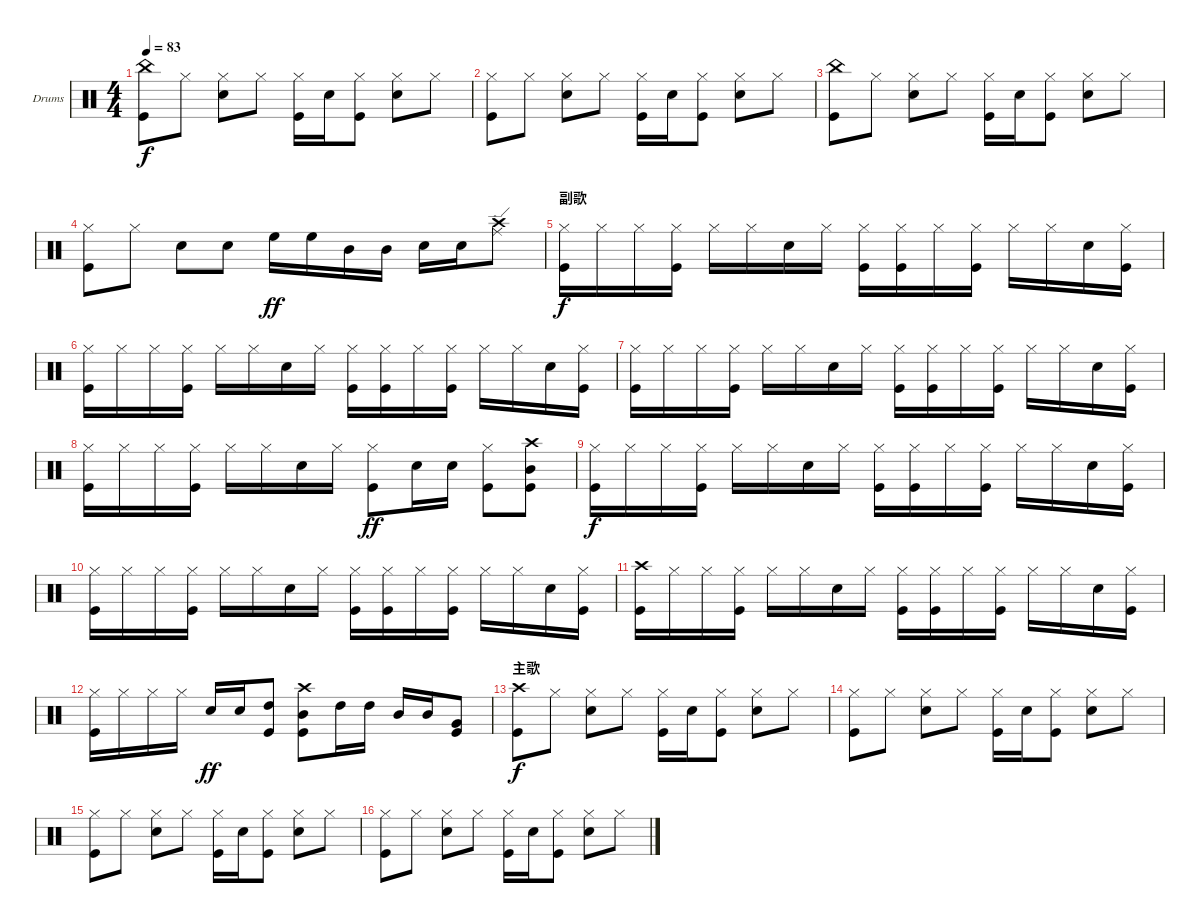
\bracketExtendMode groupsimilarinstruments
\firstSystemTrackNameOrientation horizontal
\otherSystemsTrackNameOrientation horizontal
\track ("Drumkit" "Drums") {solo instrument percussion}
\staff {score}
\articulation defaults
\ts (4 4)
\tempo 83
\clef neutral
\scale
0.333333
\ks c
("Kick (hit)" "China (hit)").8{dy f} "Hi-Hat (closed)".8 ("Snare (hit) 2" "Hi-Hat (closed)").8 "Hi-Hat (closed)".8 ("Kick (hit)" "Hi-Hat (closed)").16 "Snare (hit) 2".16 ("Kick (hit)" "Hi-Hat (closed)").8 ("Snare (hit) 2" "Hi-Hat (closed)").8 "Hi-Hat (closed)".8 |
\scale
0.333333 ("Kick (hit)" "Hi-Hat (closed)").8 "Hi-Hat (closed)".8 ("Snare (hit) 2" "Hi-Hat (closed)").8 "Hi-Hat (closed)".8 ("Kick (hit)" "Hi-Hat (closed)").16 "Snare (hit) 2".16 ("Kick (hit)" "Hi-Hat (closed)").8 ("Snare (hit) 2" "Hi-Hat (closed)").8 "Hi-Hat (closed)".8 |
\scale
0.333333 ("Kick (hit)" "China (hit)").8 "Hi-Hat (closed)".8 ("Snare (hit) 2" "Hi-Hat (closed)").8 "Hi-Hat (closed)".8 ("Kick (hit)" "Hi-Hat (closed)").16 "Snare (hit) 2".16 ("Kick (hit)" "Hi-Hat (closed)").8 ("Snare (hit) 2" "Hi-Hat (closed)").8 "Hi-Hat (closed)".8 |
\scale
0.333333 ("Kick (hit)" "Hi-Hat (closed)").8 "Hi-Hat (closed)".8 "Snare (hit) 2".8 "Snare (hit) 2".8 "High Floor Tom (hit)".16{dy ff} "High Floor Tom (hit)".16 "Mid Tom (hit)".16 "Mid Tom (hit)".16 "Snare (hit) 2".16 "Snare (hit) 2".16 ("Crash high (hit)" "Ride (edge)").8 |
\section ("" "副歌")
\scale
0.333333 ("Kick (hit)" "Hi-Hat (closed)").16{dy f} "Hi-Hat (closed)".16 "Hi-Hat (closed)".16 ("Hi-Hat (closed)" "Kick (hit)").16 "Hi-Hat (closed)".16 "Hi-Hat (closed)".16 "Snare (hit) 2".16 "Hi-Hat (closed)".16 ("Kick (hit)" "Hi-Hat (closed)").16 ("Hi-Hat (closed)" "Kick (hit)").16 "Hi-Hat (closed)".16 ("Hi-Hat (closed)" "Kick (hit)").16 "Hi-Hat (closed)".16 "Hi-Hat (closed)".16 "Snare (hit) 2".16 ("Hi-Hat (closed)" "Kick (hit)").16 |
\scale
0.333333 ("Kick (hit)" "Hi-Hat (closed)").16 "Hi-Hat (closed)".16 "Hi-Hat (closed)".16 ("Hi-Hat (closed)" "Kick (hit)").16 "Hi-Hat (closed)".16 "Hi-Hat (closed)".16 "Snare (hit) 2".16 "Hi-Hat (closed)".16 ("Kick (hit)" "Hi-Hat (closed)").16 ("Hi-Hat (closed)" "Kick (hit)").16 "Hi-Hat (closed)".16 ("Hi-Hat (closed)" "Kick (hit)").16 "Hi-Hat (closed)".16 "Hi-Hat (closed)".16 "Snare (hit) 2".16 ("Hi-Hat (closed)" "Kick (hit)").16 |
\scale
0.333333 ("Kick (hit)" "Hi-Hat (closed)").16 "Hi-Hat (closed)".16 "Hi-Hat (closed)".16 ("Hi-Hat (closed)" "Kick (hit)").16 "Hi-Hat (closed)".16 "Hi-Hat (closed)".16 "Snare (hit) 2".16 "Hi-Hat (closed)".16 ("Kick (hit)" "Hi-Hat (closed)").16 ("Hi-Hat (closed)" "Kick (hit)").16 "Hi-Hat (closed)".16 ("Hi-Hat (closed)" "Kick (hit)").16 "Hi-Hat (closed)".16 "Hi-Hat (closed)".16 "Snare (hit) 2".16 ("Hi-Hat (closed)" "Kick (hit)").16 |
\scale
0.333333 ("Kick (hit)" "Hi-Hat (closed)").16 "Hi-Hat (closed)".16 "Hi-Hat (closed)".16 ("Hi-Hat (closed)" "Kick (hit)").16 "Hi-Hat (closed)".16 "Hi-Hat (closed)".16 "Snare (hit) 2".16 "Hi-Hat (closed)".16 ("Kick (hit)" "Hi-Hat (closed)").8{dy ff} "Snare (hit) 2".16 "Snare (hit) 2".16 ("Kick (hit)" "Hi-Hat (closed)").8 ("Mid Tom (hit)" "Kick (hit)" "Crash high (hit)").8 |
\scale
0.333333 ("Kick (hit)" "Hi-Hat (closed)").16{dy f} "Hi-Hat (closed)".16 "Hi-Hat (closed)".16 ("Hi-Hat (closed)" "Kick (hit)").16 "Hi-Hat (closed)".16 "Hi-Hat (closed)".16 "Snare (hit) 2".16 "Hi-Hat (closed)".16 ("Kick (hit)" "Hi-Hat (closed)").16 ("Hi-Hat (closed)" "Kick (hit)").16 "Hi-Hat (closed)".16 ("Hi-Hat (closed)" "Kick (hit)").16 "Hi-Hat (closed)".16 "Hi-Hat (closed)".16 "Snare (hit) 2".16 ("Hi-Hat (closed)" "Kick (hit)").16 |
\scale
0.333333 ("Kick (hit)" "Hi-Hat (closed)").16 "Hi-Hat (closed)".16 "Hi-Hat (closed)".16 ("Hi-Hat (closed)" "Kick (hit)").16 "Hi-Hat (closed)".16 "Hi-Hat (closed)".16 "Snare (hit) 2".16 "Hi-Hat (closed)".16 ("Kick (hit)" "Hi-Hat (closed)").16 ("Hi-Hat (closed)" "Kick (hit)").16 "Hi-Hat (closed)".16 ("Hi-Hat (closed)" "Kick (hit)").16 "Hi-Hat (closed)".16 "Hi-Hat (closed)".16 "Snare (hit) 2".16 ("Hi-Hat (closed)" "Kick (hit)").16 |
\scale
0.333333 ("Kick (hit)" "Crash high (hit)").16 "Hi-Hat (closed)".16 "Hi-Hat (closed)".16 ("Hi-Hat (closed)" "Kick (hit)").16 "Hi-Hat (closed)".16 "Hi-Hat (closed)".16 "Snare (hit) 2".16 "Hi-Hat (closed)".16 ("Kick (hit)" "Hi-Hat (closed)").16 ("Hi-Hat (closed)" "Kick (hit)").16 "Hi-Hat (closed)".16 ("Hi-Hat (closed)" "Kick (hit)").16 "Hi-Hat (closed)".16 "Hi-Hat (closed)".16 "Snare (hit) 2".16 ("Hi-Hat (closed)" "Kick (hit)").16 |
\scale
0.333333 ("Kick (hit)" "Hi-Hat (closed)").16 "Hi-Hat (closed)".16 "Hi-Hat (closed)".16 "Hi-Hat (closed)".16 "Snare (hit) 2".16{dy ff} "Snare (hit) 2".16 ("Kick (hit)" "High Tom (hit)").8 ("Mid Tom (hit)" "Kick (hit)" "Crash high (hit)").8 "High Tom (hit)".16 "High Tom (hit)".16 "Mid Tom (hit)".16 "Mid Tom (hit)".16 ("Very Low Tom (hit)" "Kick (hit)").8 |
\section ("" "主歌")
\scale
0.333333 ("Kick (hit)" "Crash high (hit)").8{dy f} "Hi-Hat (closed)".8 ("Snare (hit) 2" "Hi-Hat (closed)").8 "Hi-Hat (closed)".8 ("Kick (hit)" "Hi-Hat (closed)").16 "Snare (hit) 2".16 ("Kick (hit)" "Hi-Hat (closed)").8 ("Snare (hit) 2" "Hi-Hat (closed)").8 "Hi-Hat (closed)".8 |
\scale
0.333333 ("Kick (hit)" "Hi-Hat (closed)").8 "Hi-Hat (closed)".8 ("Snare (hit) 2" "Hi-Hat (closed)").8 "Hi-Hat (closed)".8 ("Kick (hit)" "Hi-Hat (closed)").16 "Snare (hit) 2".16 ("Kick (hit)" "Hi-Hat (closed)").8 ("Snare (hit) 2" "Hi-Hat (closed)").8 "Hi-Hat (closed)".8 |
\scale
0.333333 ("Kick (hit)" "Hi-Hat (closed)").8 "Hi-Hat (closed)".8 ("Snare (hit) 2" "Hi-Hat (closed)").8 "Hi-Hat (closed)".8 ("Kick (hit)" "Hi-Hat (closed)").16 "Snare (hit) 2".16 ("Kick (hit)" "Hi-Hat (closed)").8 ("Snare (hit) 2" "Hi-Hat (closed)").8 "Hi-Hat (closed)".8 |
\scale
0.333333 ("Kick (hit)" "Hi-Hat (closed)").8 "Hi-Hat (closed)".8 ("Snare (hit) 2" "Hi-Hat (closed)").8 "Hi-Hat (closed)".8 ("Kick (hit)" "Hi-Hat (closed)").16 "Snare (hit) 2".16 ("Kick (hit)" "Hi-Hat (closed)").8 ("Snare (hit) 2" "Hi-Hat (closed)").8 "Hi-Hat (closed)".8
